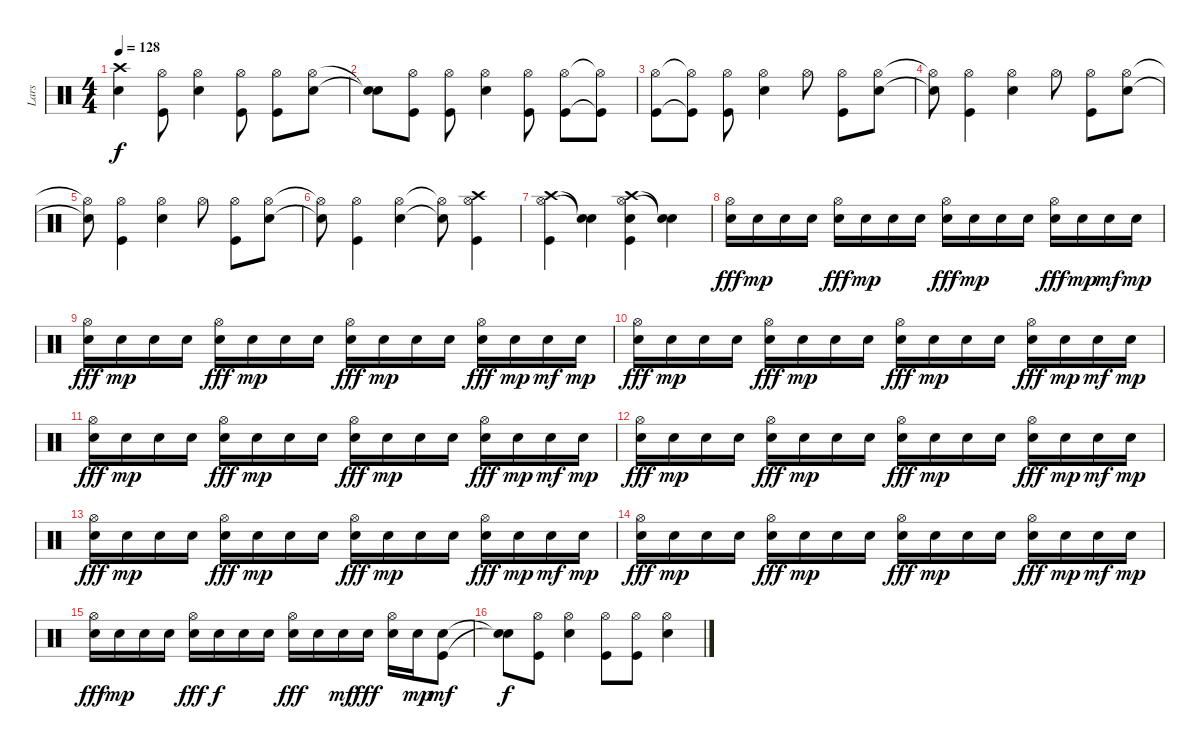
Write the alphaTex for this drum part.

\track ("Lars" "Lars") {instrument percussion}
\staff {score}
\articulation defaults
\ts (4 4)
\tempo 128
\clef neutral
\ks c
("Crash high (hit)" "Snare (hit) 2").4{dy f} ("Hi-Hat (open)" "Kick (hit)").8 ("Hi-Hat (open)" "Snare (hit) 2").4 ("Hi-Hat (open)" "Kick (hit)").8 ("Hi-Hat (open)" "Kick (hit)").8 ("Hi-Hat (open)" "Snare (hit) 2").8 |
("Snare (hit)"{t} "Snare (hit)"{t}).8 ("Hi-Hat (open)" "Kick (hit)").8 ("Hi-Hat (open)" "Kick (hit)").8 ("Hi-Hat (open)" "Snare (hit) 2").4 ("Hi-Hat (open)" "Kick (hit)").8 ("Hi-Hat (open)" "Kick (hit)").8 ("Hi-Hat (open)"{t} "Kick (hit)"{t}).8 |
("Hi-Hat (open)" "Kick (hit)").8 ("Hi-Hat (open)"{t} "Kick (hit)"{t}).8 ("Hi-Hat (open)" "Kick (hit)").8 ("Hi-Hat (open)" "Snare (hit) 2").4 "Hi-Hat (open)".8 ("Hi-Hat (open)" "Kick (hit)").8 ("Hi-Hat (open)" "Snare (hit) 2").8 |
("Hi-Hat (open)"{t} "Snare (hit) 2"{t}).8 ("Hi-Hat (open)" "Kick (hit)").4 ("Hi-Hat (open)" "Snare (hit) 2").4 "Hi-Hat (open)".8 ("Hi-Hat (open)" "Kick (hit)").8 ("Hi-Hat (open)" "Snare (hit) 2").8 |
("Hi-Hat (open)"{t} "Snare (hit) 2"{t}).8 ("Hi-Hat (open)" "Kick (hit)").4 ("Hi-Hat (open)" "Snare (hit) 2").4 "Hi-Hat (open)".8 ("Hi-Hat (open)" "Kick (hit)").8 ("Hi-Hat (open)" "Snare (hit) 2").8 |
("Hi-Hat (open)"{t} "Snare (hit) 2"{t}).8 ("Hi-Hat (open)" "Kick (hit)").4 ("Hi-Hat (open)" "Snare (hit) 2").4 ("Hi-Hat (open)"{t} "Snare (hit)"{t}).8 ("Crash high (hit)" "Hi-Hat (open)" "Kick (hit)").4 |
("Crash high (hit)" "Hi-Hat (open)" "Kick (hit)").4 ("Snare (hit)"{t} "Snare (hit)"{t}).4 ("Crash high (hit)" "Hi-Hat (open)" "Snare (hit) 2" "Kick (hit)").4 ("Snare (hit)"{t} "Snare (hit)"{t}).4 |
("Hi-Hat (open)" "Snare (hit) 2").16{dy fff volume 9} "Snare (hit) 2".16{dy mp} "Snare (hit) 2".16 "Snare (hit) 2".16 ("Hi-Hat (open)" "Snare (hit) 2").16{dy fff} "Snare (hit) 2".16{dy mp} "Snare (hit) 2".16 "Snare (hit) 2".16 ("Hi-Hat (open)" "Snare (hit) 2").16{dy fff} "Snare (hit) 2".16{dy mp} "Snare (hit) 2".16 "Snare (hit) 2".16 ("Hi-Hat (open)" "Snare (hit) 2").16{dy fff} "Snare (hit) 2".16{dy mp} "Snare (hit) 2".16{dy mf} "Snare (hit) 2".16{dy mp} |
("Hi-Hat (open)" "Snare (hit) 2").16{dy fff} "Snare (hit) 2".16{dy mp} "Snare (hit) 2".16 "Snare (hit) 2".16 ("Hi-Hat (open)" "Snare (hit) 2").16{dy fff} "Snare (hit) 2".16{dy mp} "Snare (hit) 2".16 "Snare (hit) 2".16 ("Hi-Hat (open)" "Snare (hit) 2").16{dy fff} "Snare (hit) 2".16{dy mp} "Snare (hit) 2".16 "Snare (hit) 2".16 ("Hi-Hat (open)" "Snare (hit) 2").16{dy fff} "Snare (hit) 2".16{dy mp} "Snare (hit) 2".16{dy mf} "Snare (hit) 2".16{dy mp} |
("Hi-Hat (open)" "Snare (hit) 2").16{dy fff} "Snare (hit) 2".16{dy mp} "Snare (hit) 2".16 "Snare (hit) 2".16 ("Hi-Hat (open)" "Snare (hit) 2").16{dy fff} "Snare (hit) 2".16{dy mp} "Snare (hit) 2".16 "Snare (hit) 2".16 ("Hi-Hat (open)" "Snare (hit) 2").16{dy fff} "Snare (hit) 2".16{dy mp} "Snare (hit) 2".16 "Snare (hit) 2".16 ("Hi-Hat (open)" "Snare (hit) 2").16{dy fff} "Snare (hit) 2".16{dy mp} "Snare (hit) 2".16{dy mf} "Snare (hit) 2".16{dy mp} |
("Hi-Hat (open)" "Snare (hit) 2").16{dy fff} "Snare (hit) 2".16{dy mp} "Snare (hit) 2".16 "Snare (hit) 2".16 ("Hi-Hat (open)" "Snare (hit) 2").16{dy fff} "Snare (hit) 2".16{dy mp} "Snare (hit) 2".16 "Snare (hit) 2".16 ("Hi-Hat (open)" "Snare (hit) 2").16{dy fff} "Snare (hit) 2".16{dy mp} "Snare (hit) 2".16 "Snare (hit) 2".16 ("Hi-Hat (open)" "Snare (hit) 2").16{dy fff} "Snare (hit) 2".16{dy mp} "Snare (hit) 2".16{dy mf} "Snare (hit) 2".16{dy mp} |
("Hi-Hat (open)" "Snare (hit) 2").16{dy fff} "Snare (hit) 2".16{dy mp} "Snare (hit) 2".16 "Snare (hit) 2".16 ("Hi-Hat (open)" "Snare (hit) 2").16{dy fff} "Snare (hit) 2".16{dy mp} "Snare (hit) 2".16 "Snare (hit) 2".16 ("Hi-Hat (open)" "Snare (hit) 2").16{dy fff} "Snare (hit) 2".16{dy mp} "Snare (hit) 2".16 "Snare (hit) 2".16 ("Hi-Hat (open)" "Snare (hit) 2").16{dy fff} "Snare (hit) 2".16{dy mp} "Snare (hit) 2".16{dy mf} "Snare (hit) 2".16{dy mp} |
("Hi-Hat (open)" "Snare (hit) 2").16{dy fff} "Snare (hit) 2".16{dy mp} "Snare (hit) 2".16 "Snare (hit) 2".16 ("Hi-Hat (open)" "Snare (hit) 2").16{dy fff} "Snare (hit) 2".16{dy mp} "Snare (hit) 2".16 "Snare (hit) 2".16 ("Hi-Hat (open)" "Snare (hit) 2").16{dy fff} "Snare (hit) 2".16{dy mp} "Snare (hit) 2".16 "Snare (hit) 2".16 ("Hi-Hat (open)" "Snare (hit) 2").16{dy fff} "Snare (hit) 2".16{dy mp} "Snare (hit) 2".16{dy mf} "Snare (hit) 2".16{dy mp} |
("Hi-Hat (open)" "Snare (hit) 2").16{dy fff} "Snare (hit) 2".16{dy mp} "Snare (hit) 2".16 "Snare (hit) 2".16 ("Hi-Hat (open)" "Snare (hit) 2").16{dy fff} "Snare (hit) 2".16{dy mp} "Snare (hit) 2".16 "Snare (hit) 2".16 ("Hi-Hat (open)" "Snare (hit) 2").16{dy fff} "Snare (hit) 2".16{dy mp} "Snare (hit) 2".16 "Snare (hit) 2".16 ("Hi-Hat (open)" "Snare (hit) 2").16{dy fff} "Snare (hit) 2".16{dy mp} "Snare (hit) 2".16{dy mf} "Snare (hit) 2".16{dy mp} |
("Hi-Hat (open)" "Snare (hit) 2").16{dy fff} "Snare (hit) 2".16{dy mp} "Snare (hit) 2".16 "Snare (hit) 2".16{volume 16} ("Hi-Hat (open)" "Snare (hit) 2").16{dy fff} "Snare (hit) 2".16{dy f} "Snare (hit) 2".16 "Snare (hit) 2".16 ("Hi-Hat (open)" "Snare (hit) 2").16{dy fff} "Snare (hit) 2".16 "Snare (hit) 2".16{dy mf} "Snare (hit) 2".16{dy fff} ("Hi-Hat (open)" "Snare (hit) 2").16 "Snare (hit) 2".16{dy mp} ("Snare (hit) 2" "Kick (hit)").8{dy mf} |
("Snare (hit)"{t} "Snare (hit)"{t}).8{dy f} ("Hi-Hat (open)" "Kick (hit)").8 ("Hi-Hat (open)" "Snare (hit) 2").4 ("Hi-Hat (open)" "Kick (hit)").8 ("Hi-Hat (open)" "Kick (hit)").8 ("Hi-Hat (open)" "Snare (hit) 2").4
